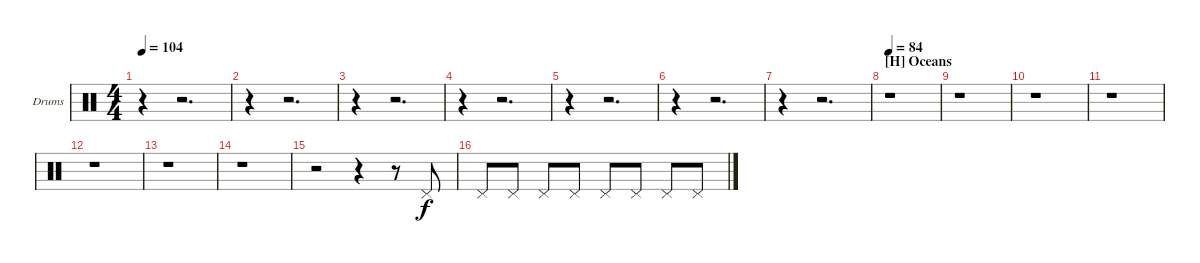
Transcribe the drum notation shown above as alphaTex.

\defaultSystemsLayout 4
\bracketExtendMode nobrackets
\firstSystemTrackNameOrientation horizontal
\otherSystemsTrackNameOrientation horizontal
\track ("Dave Krusen" "Drums") {instrument percussion}
\staff {score}
\articulation defaults
\ts (4 4)
\tempo 104
\clef neutral
\ks c
r.4{dy f} r.2{d} |
r.4 r.2{d} |
r.4 r.2{d} |
r.4 r.2{d} |
r.4 r.2{d} |
r.4 r.2{d} |
r.4 r.2{d} |
\section ("H" "Oceans")
\tempo 84
r.1 |
r.1 |
r.1 |
r.1 |
r.1 |
r.1 |
r.1 |
r.2 r.4 r.8 "Pedal Hi-Hat (hit)".8 |
"Pedal Hi-Hat (hit)".8 "Pedal Hi-Hat (hit)".8 "Pedal Hi-Hat (hit)".8 "Pedal Hi-Hat (hit)".8 "Pedal Hi-Hat (hit)".8 "Pedal Hi-Hat (hit)".8 "Pedal Hi-Hat (hit)".8 "Pedal Hi-Hat (hit)".8
